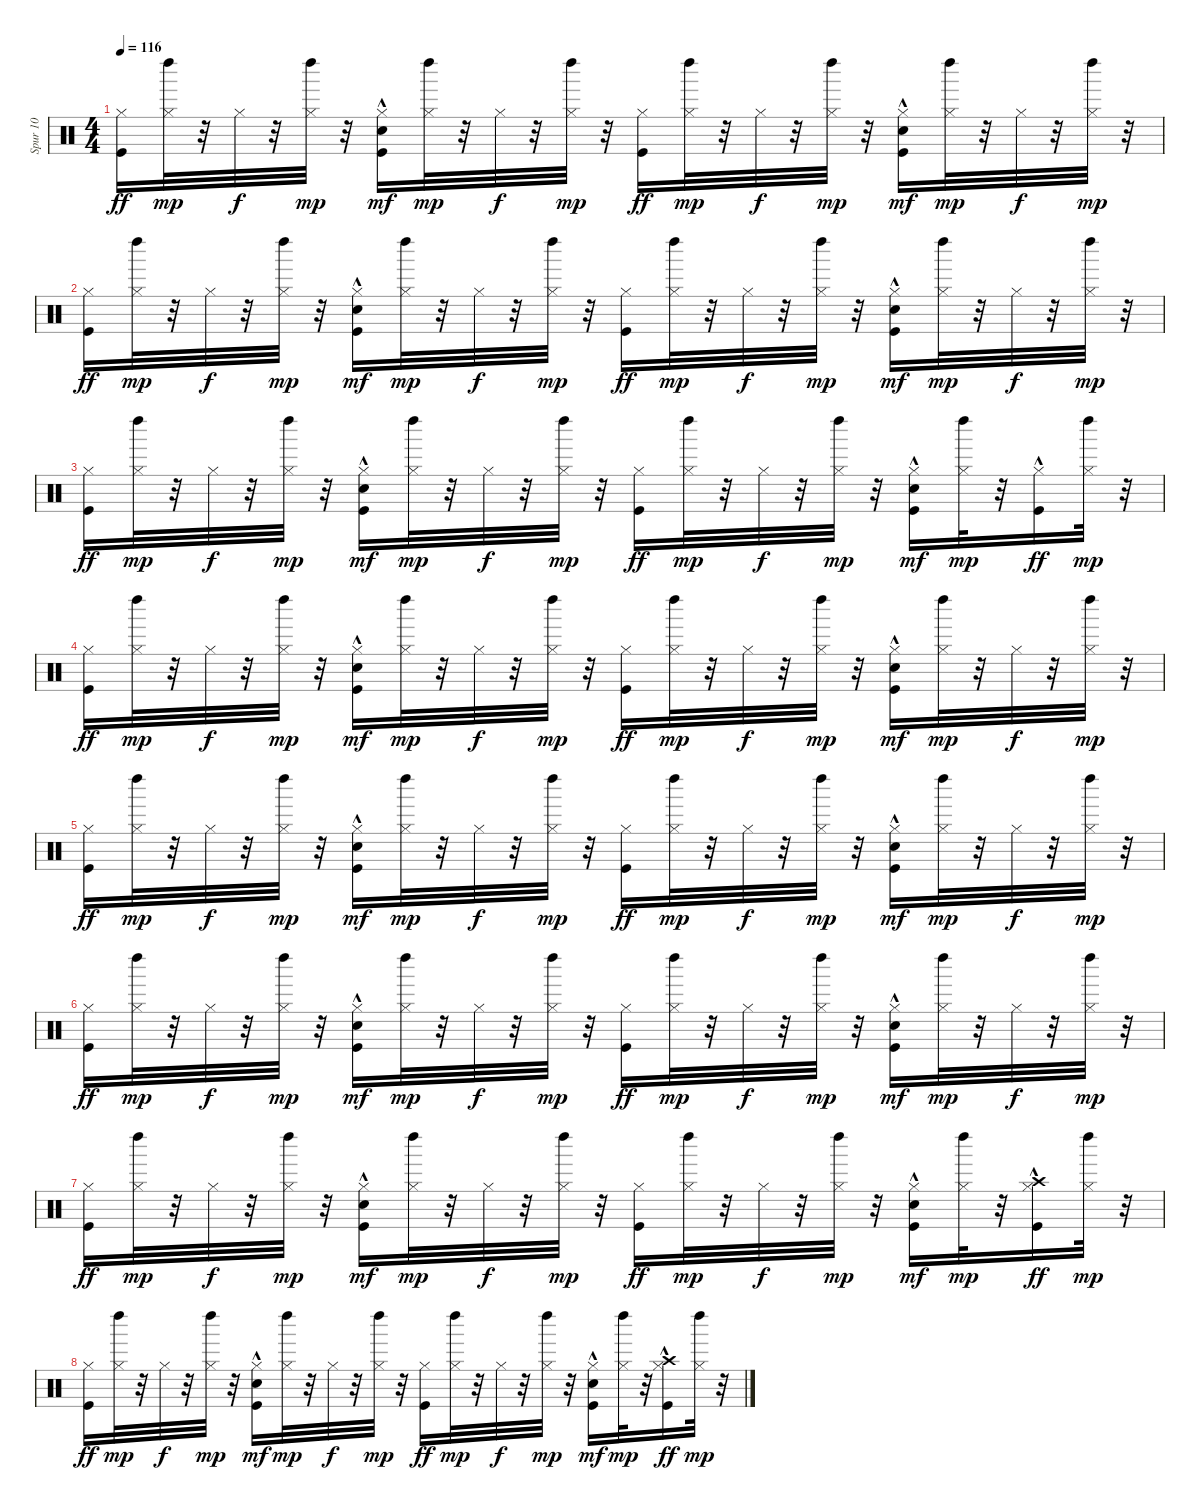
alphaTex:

\track ("Spur 10" "Spur 10") {instrument percussion}
\staff {score}
\articulation defaults
\ts (4 4)
\tempo 116
\clef neutral
\ks c
("Kick (hit)" "Hi-Hat (closed)").16{dy ff} ("Left Maraca (hit)" "Hi-Hat (closed)").32{dy mp} r.32 "Hi-Hat (closed)".32{dy f} r.32 ("Left Maraca (hit)" "Hi-Hat (closed)").32{dy mp} r.32 ("Kick (hit)"{hac} "Snare (hit) 2"{hac} "Hi-Hat (closed)").16{dy mf} ("Left Maraca (hit)" "Hi-Hat (closed)").32{dy mp} r.32 "Hi-Hat (closed)".32{dy f} r.32 ("Left Maraca (hit)" "Hi-Hat (closed)").32{dy mp} r.32 ("Kick (hit)" "Hi-Hat (closed)").16{dy ff} ("Left Maraca (hit)" "Hi-Hat (closed)").32{dy mp} r.32 "Hi-Hat (closed)".32{dy f} r.32 ("Left Maraca (hit)" "Hi-Hat (closed)").32{dy mp} r.32 ("Kick (hit)"{hac} "Snare (hit) 2"{hac} "Hi-Hat (closed)").16{dy mf} ("Left Maraca (hit)" "Hi-Hat (closed)").32{dy mp} r.32 "Hi-Hat (closed)".32{dy f} r.32 ("Left Maraca (hit)" "Hi-Hat (closed)").32{dy mp} r.32 |
("Kick (hit)" "Hi-Hat (closed)").16{dy ff} ("Left Maraca (hit)" "Hi-Hat (closed)").32{dy mp} r.32 "Hi-Hat (closed)".32{dy f} r.32 ("Left Maraca (hit)" "Hi-Hat (closed)").32{dy mp} r.32 ("Kick (hit)"{hac} "Snare (hit) 2"{hac} "Hi-Hat (closed)").16{dy mf} ("Left Maraca (hit)" "Hi-Hat (closed)").32{dy mp} r.32 "Hi-Hat (closed)".32{dy f} r.32 ("Left Maraca (hit)" "Hi-Hat (closed)").32{dy mp} r.32 ("Kick (hit)" "Hi-Hat (closed)").16{dy ff} ("Left Maraca (hit)" "Hi-Hat (closed)").32{dy mp} r.32 "Hi-Hat (closed)".32{dy f} r.32 ("Left Maraca (hit)" "Hi-Hat (closed)").32{dy mp} r.32 ("Kick (hit)"{hac} "Snare (hit) 2"{hac} "Hi-Hat (closed)").16{dy mf} ("Left Maraca (hit)" "Hi-Hat (closed)").32{dy mp} r.32 "Hi-Hat (closed)".32{dy f} r.32 ("Left Maraca (hit)" "Hi-Hat (closed)").32{dy mp} r.32 |
("Kick (hit)" "Hi-Hat (closed)").16{dy ff} ("Left Maraca (hit)" "Hi-Hat (closed)").32{dy mp} r.32 "Hi-Hat (closed)".32{dy f} r.32 ("Left Maraca (hit)" "Hi-Hat (closed)").32{dy mp} r.32 ("Kick (hit)"{hac} "Snare (hit) 2"{hac} "Hi-Hat (closed)").16{dy mf} ("Left Maraca (hit)" "Hi-Hat (closed)").32{dy mp} r.32 "Hi-Hat (closed)".32{dy f} r.32 ("Left Maraca (hit)" "Hi-Hat (closed)").32{dy mp} r.32 ("Kick (hit)" "Hi-Hat (closed)").16{dy ff} ("Left Maraca (hit)" "Hi-Hat (closed)").32{dy mp} r.32 "Hi-Hat (closed)".32{dy f} r.32 ("Left Maraca (hit)" "Hi-Hat (closed)").32{dy mp} r.32 ("Kick (hit)"{hac} "Snare (hit) 2"{hac} "Hi-Hat (closed)").16{dy mf} ("Left Maraca (hit)" "Hi-Hat (closed)").32{dy mp} r.32 ("Kick (hit)"{hac} "Hi-Hat (closed)").16{dy ff} ("Left Maraca (hit)" "Hi-Hat (closed)").32{dy mp} r.32 |
("Kick (hit)" "Hi-Hat (closed)").16{dy ff} ("Left Maraca (hit)" "Hi-Hat (closed)").32{dy mp} r.32 "Hi-Hat (closed)".32{dy f} r.32 ("Left Maraca (hit)" "Hi-Hat (closed)").32{dy mp} r.32 ("Kick (hit)"{hac} "Snare (hit) 2"{hac} "Hi-Hat (closed)").16{dy mf} ("Left Maraca (hit)" "Hi-Hat (closed)").32{dy mp} r.32 "Hi-Hat (closed)".32{dy f} r.32 ("Left Maraca (hit)" "Hi-Hat (closed)").32{dy mp} r.32 ("Kick (hit)" "Hi-Hat (closed)").16{dy ff} ("Left Maraca (hit)" "Hi-Hat (closed)").32{dy mp} r.32 "Hi-Hat (closed)".32{dy f} r.32 ("Left Maraca (hit)" "Hi-Hat (closed)").32{dy mp} r.32 ("Kick (hit)"{hac} "Snare (hit) 2"{hac} "Hi-Hat (closed)").16{dy mf} ("Left Maraca (hit)" "Hi-Hat (closed)").32{dy mp} r.32 "Hi-Hat (closed)".32{dy f} r.32 ("Left Maraca (hit)" "Hi-Hat (closed)").32{dy mp} r.32 |
("Kick (hit)" "Hi-Hat (closed)").16{dy ff} ("Left Maraca (hit)" "Hi-Hat (closed)").32{dy mp} r.32 "Hi-Hat (closed)".32{dy f} r.32 ("Left Maraca (hit)" "Hi-Hat (closed)").32{dy mp} r.32 ("Kick (hit)"{hac} "Snare (hit) 2"{hac} "Hi-Hat (closed)").16{dy mf} ("Left Maraca (hit)" "Hi-Hat (closed)").32{dy mp} r.32 "Hi-Hat (closed)".32{dy f} r.32 ("Left Maraca (hit)" "Hi-Hat (closed)").32{dy mp} r.32 ("Kick (hit)" "Hi-Hat (closed)").16{dy ff} ("Left Maraca (hit)" "Hi-Hat (closed)").32{dy mp} r.32 "Hi-Hat (closed)".32{dy f} r.32 ("Left Maraca (hit)" "Hi-Hat (closed)").32{dy mp} r.32 ("Kick (hit)"{hac} "Snare (hit) 2"{hac} "Hi-Hat (closed)").16{dy mf} ("Left Maraca (hit)" "Hi-Hat (closed)").32{dy mp} r.32 "Hi-Hat (closed)".32{dy f} r.32 ("Left Maraca (hit)" "Hi-Hat (closed)").32{dy mp} r.32 |
("Kick (hit)" "Hi-Hat (closed)").16{dy ff} ("Left Maraca (hit)" "Hi-Hat (closed)").32{dy mp} r.32 "Hi-Hat (closed)".32{dy f} r.32 ("Left Maraca (hit)" "Hi-Hat (closed)").32{dy mp} r.32 ("Kick (hit)"{hac} "Snare (hit) 2"{hac} "Hi-Hat (closed)").16{dy mf} ("Left Maraca (hit)" "Hi-Hat (closed)").32{dy mp} r.32 "Hi-Hat (closed)".32{dy f} r.32 ("Left Maraca (hit)" "Hi-Hat (closed)").32{dy mp} r.32 ("Kick (hit)" "Hi-Hat (closed)").16{dy ff} ("Left Maraca (hit)" "Hi-Hat (closed)").32{dy mp} r.32 "Hi-Hat (closed)".32{dy f} r.32 ("Left Maraca (hit)" "Hi-Hat (closed)").32{dy mp} r.32 ("Kick (hit)"{hac} "Snare (hit) 2"{hac} "Hi-Hat (closed)").16{dy mf} ("Left Maraca (hit)" "Hi-Hat (closed)").32{dy mp} r.32 "Hi-Hat (closed)".32{dy f} r.32 ("Left Maraca (hit)" "Hi-Hat (closed)").32{dy mp} r.32 |
("Kick (hit)" "Hi-Hat (closed)").16{dy ff} ("Left Maraca (hit)" "Hi-Hat (closed)").32{dy mp} r.32 "Hi-Hat (closed)".32{dy f} r.32 ("Left Maraca (hit)" "Hi-Hat (closed)").32{dy mp} r.32 ("Kick (hit)"{hac} "Snare (hit) 2"{hac} "Hi-Hat (closed)").16{dy mf} ("Left Maraca (hit)" "Hi-Hat (closed)").32{dy mp} r.32 "Hi-Hat (closed)".32{dy f} r.32 ("Left Maraca (hit)" "Hi-Hat (closed)").32{dy mp} r.32 ("Kick (hit)" "Hi-Hat (closed)").16{dy ff} ("Left Maraca (hit)" "Hi-Hat (closed)").32{dy mp} r.32 "Hi-Hat (closed)".32{dy f} r.32 ("Left Maraca (hit)" "Hi-Hat (closed)").32{dy mp} r.32 ("Kick (hit)"{hac} "Snare (hit) 2"{hac} "Hi-Hat (closed)").16{dy mf} ("Left Maraca (hit)" "Hi-Hat (closed)").32{dy mp} r.32 ("Kick (hit)"{hac} "Hi-Hat (closed)" "Crash high (hit)").16{dy ff} ("Left Maraca (hit)" "Hi-Hat (closed)").32{dy mp} r.32 |
("Kick (hit)" "Hi-Hat (closed)").16{dy ff} ("Left Maraca (hit)" "Hi-Hat (closed)").32{dy mp} r.32 "Hi-Hat (closed)".32{dy f} r.32 ("Left Maraca (hit)" "Hi-Hat (closed)").32{dy mp} r.32 ("Kick (hit)"{hac} "Snare (hit) 2"{hac} "Hi-Hat (closed)").16{dy mf} ("Left Maraca (hit)" "Hi-Hat (closed)").32{dy mp} r.32 "Hi-Hat (closed)".32{dy f} r.32 ("Left Maraca (hit)" "Hi-Hat (closed)").32{dy mp} r.32 ("Kick (hit)" "Hi-Hat (closed)").16{dy ff} ("Left Maraca (hit)" "Hi-Hat (closed)").32{dy mp} r.32 "Hi-Hat (closed)".32{dy f} r.32 ("Left Maraca (hit)" "Hi-Hat (closed)").32{dy mp} r.32 ("Kick (hit)"{hac} "Snare (hit) 2"{hac} "Hi-Hat (closed)").16{dy mf} ("Left Maraca (hit)" "Hi-Hat (closed)").32{dy mp} r.32 ("Kick (hit)"{hac} "Hi-Hat (closed)" "Crash high (hit)").16{dy ff} ("Left Maraca (hit)" "Hi-Hat (closed)").32{dy mp} r.32
